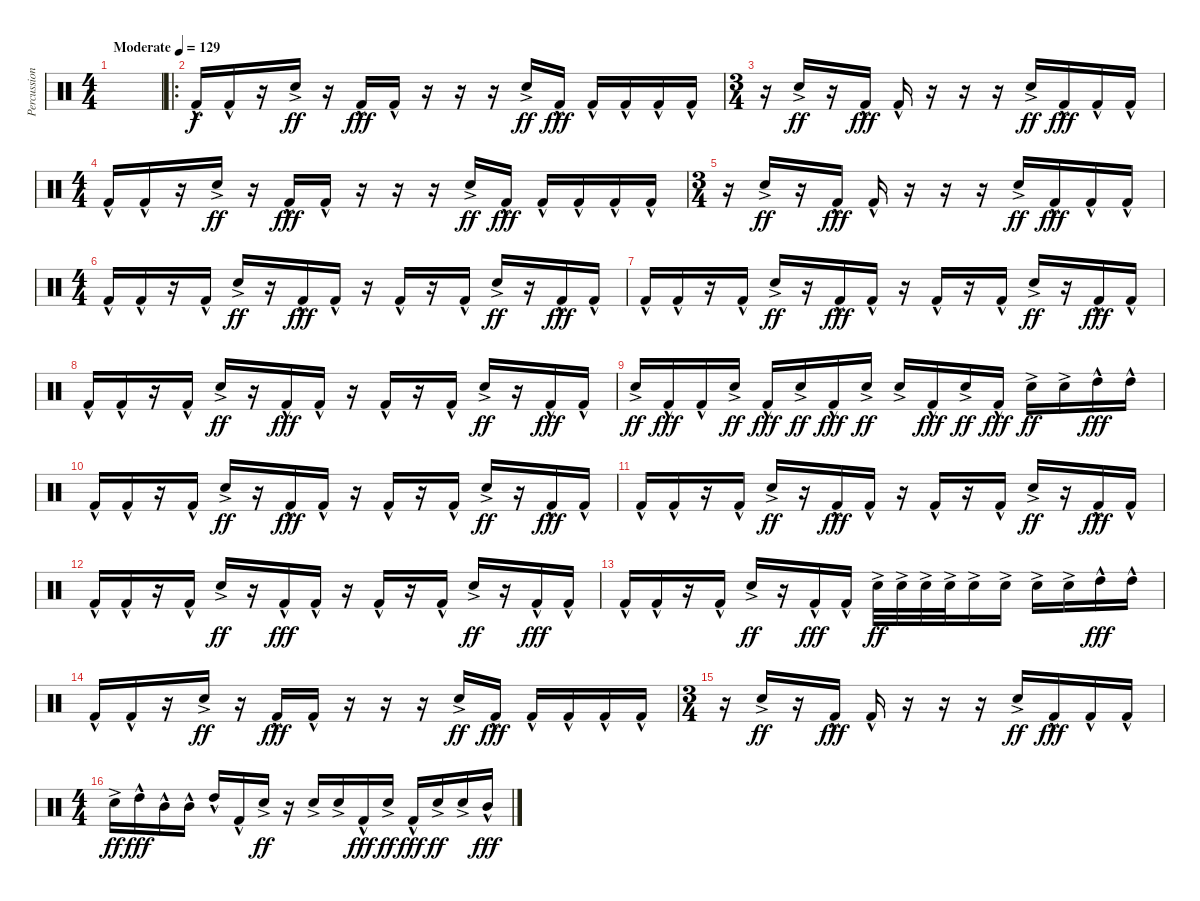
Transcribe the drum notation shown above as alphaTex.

\track ("Percussion" "Percussion") {instrument percussion bank 2}
\staff {score}
\articulation defaults
\ts (4 4)
\tempo (129 "Moderate")
\clef neutral
\ks c
|
\ro "Kick (hit) 2"{hac}.16 "Kick (hit) 2"{hac}.16
r.16 "Snare (hit) 2"{ac}.16{dy ff} r.16 "Kick (hit) 2"{hac}.16{dy fff} "Kick (hit) 2"{hac}.16 r.16 r.16 r.16 "Snare (hit) 2"{ac}.16{dy ff} "Kick (hit) 2"{hac}.16{dy fff} "Kick (hit) 2"{hac}.16 "Kick (hit) 2"{hac}.16 "Kick (hit) 2"{hac}.16 "Kick (hit) 2"{hac}.16 |
\ts (3 4)
r.16 "Snare (hit) 2"{ac}.16{dy ff} r.16 "Kick (hit) 2"{hac}.16{dy fff} "Kick (hit) 2"{hac}.16 r.16 r.16 r.16 "Snare (hit) 2"{ac}.16{dy ff} "Kick (hit) 2"{hac}.16{dy fff} "Kick (hit) 2"{hac}.16 "Kick (hit) 2"{hac}.16 |
\ts (4 4)
"Kick (hit) 2"{hac}.16 "Kick (hit) 2"{hac}.16 r.16 "Snare (hit) 2"{ac}.16{dy ff} r.16 "Kick (hit) 2"{hac}.16{dy fff} "Kick (hit) 2"{hac}.16 r.16 r.16 r.16 "Snare (hit) 2"{ac}.16{dy ff} "Kick (hit) 2"{hac}.16{dy fff} "Kick (hit) 2"{hac}.16 "Kick (hit) 2"{hac}.16 "Kick (hit) 2"{hac}.16 "Kick (hit) 2"{hac}.16 |
\ts (3 4)
r.16 "Snare (hit) 2"{ac}.16{dy ff} r.16 "Kick (hit) 2"{hac}.16{dy fff} "Kick (hit) 2"{hac}.16 r.16 r.16 r.16 "Snare (hit) 2"{ac}.16{dy ff} "Kick (hit) 2"{hac}.16{dy fff} "Kick (hit) 2"{hac}.16 "Kick (hit) 2"{hac}.16 |
\ts (4 4)
"Kick (hit) 2"{hac}.16 "Kick (hit) 2"{hac}.16 r.16 "Kick (hit) 2"{hac}.16 "Snare (hit) 2"{ac}.16{dy ff} r.16 "Kick (hit) 2"{hac}.16{dy fff} "Kick (hit) 2"{hac}.16 r.16 "Kick (hit) 2"{hac}.16 r.16 "Kick (hit) 2"{hac}.16 "Snare (hit) 2"{ac}.16{dy ff} r.16 "Kick (hit) 2"{hac}.16{dy fff} "Kick (hit) 2"{hac}.16 |
"Kick (hit) 2"{hac}.16 "Kick (hit) 2"{hac}.16 r.16 "Kick (hit) 2"{hac}.16 "Snare (hit) 2"{ac}.16{dy ff} r.16 "Kick (hit) 2"{hac}.16{dy fff} "Kick (hit) 2"{hac}.16 r.16 "Kick (hit) 2"{hac}.16 r.16 "Kick (hit) 2"{hac}.16 "Snare (hit) 2"{ac}.16{dy ff} r.16 "Kick (hit) 2"{hac}.16{dy fff} "Kick (hit) 2"{hac}.16 |
"Kick (hit) 2"{hac}.16 "Kick (hit) 2"{hac}.16 r.16 "Kick (hit) 2"{hac}.16 "Snare (hit) 2"{ac}.16{dy ff} r.16 "Kick (hit) 2"{hac}.16{dy fff} "Kick (hit) 2"{hac}.16 r.16 "Kick (hit) 2"{hac}.16 r.16 "Kick (hit) 2"{hac}.16 "Snare (hit) 2"{ac}.16{dy ff} r.16 "Kick (hit) 2"{hac}.16{dy fff} "Kick (hit) 2"{hac}.16 |
"Snare (hit) 2"{ac}.16{dy ff} "Kick (hit) 2"{hac}.16{dy fff} "Kick (hit) 2"{hac}.16 "Snare (hit) 2"{ac}.16{dy ff} "Kick (hit) 2"{hac}.16{dy fff} "Snare (hit) 2"{ac}.16{dy ff} "Kick (hit) 2"{hac}.16{dy fff} "Snare (hit) 2"{ac}.16{dy ff} "Snare (hit) 2"{ac}.16 "Kick (hit) 2"{hac}.16{dy fff} "Snare (hit) 2"{ac}.16{dy ff} "Kick (hit) 2"{hac}.16{dy fff} "Snare (hit) 2"{ac}.16{dy ff} "Snare (hit) 2"{ac}.16 "High Tom (hit)"{hac}.16{dy fff} "High Tom (hit)"{hac}.16 |
"Kick (hit) 2"{hac}.16 "Kick (hit) 2"{hac}.16 r.16 "Kick (hit) 2"{hac}.16 "Snare (hit) 2"{ac}.16{dy ff} r.16 "Kick (hit) 2"{hac}.16{dy fff} "Kick (hit) 2"{hac}.16 r.16 "Kick (hit) 2"{hac}.16 r.16 "Kick (hit) 2"{hac}.16 "Snare (hit) 2"{ac}.16{dy ff} r.16 "Kick (hit) 2"{hac}.16{dy fff} "Kick (hit) 2"{hac}.16 |
"Kick (hit) 2"{hac}.16 "Kick (hit) 2"{hac}.16 r.16 "Kick (hit) 2"{hac}.16 "Snare (hit) 2"{ac}.16{dy ff} r.16 "Kick (hit) 2"{hac}.16{dy fff} "Kick (hit) 2"{hac}.16 r.16 "Kick (hit) 2"{hac}.16 r.16 "Kick (hit) 2"{hac}.16 "Snare (hit) 2"{ac}.16{dy ff} r.16 "Kick (hit) 2"{hac}.16{dy fff} "Kick (hit) 2"{hac}.16 |
"Kick (hit) 2"{hac}.16 "Kick (hit) 2"{hac}.16 r.16 "Kick (hit) 2"{hac}.16 "Snare (hit) 2"{ac}.16{dy ff} r.16 "Kick (hit) 2"{hac}.16{dy fff} "Kick (hit) 2"{hac}.16 r.16 "Kick (hit) 2"{hac}.16 r.16 "Kick (hit) 2"{hac}.16 "Snare (hit) 2"{ac}.16{dy ff} r.16 "Kick (hit) 2"{hac}.16{dy fff} "Kick (hit) 2"{hac}.16 |
"Kick (hit) 2"{hac}.16 "Kick (hit) 2"{hac}.16 r.16 "Kick (hit) 2"{hac}.16 "Snare (hit) 2"{ac}.16{dy ff} r.16 "Kick (hit) 2"{hac}.16{dy fff} "Kick (hit) 2"{hac}.16 "Snare (hit) 2"{ac}.32{dy ff} "Snare (hit) 2"{ac}.32 "Snare (hit) 2"{ac}.32 "Snare (hit) 2"{ac}.32 "Snare (hit) 2"{ac}.16 "Snare (hit) 2"{ac}.16 "Snare (hit) 2"{ac}.16 "Snare (hit) 2"{ac}.16 "High Tom (hit)"{hac}.16{dy fff} "High Tom (hit)"{hac}.16 |
"Kick (hit) 2"{hac}.16 "Kick (hit) 2"{hac}.16 r.16 "Snare (hit) 2"{ac}.16{dy ff} r.16 "Kick (hit) 2"{hac}.16{dy fff} "Kick (hit) 2"{hac}.16 r.16 r.16 r.16 "Snare (hit) 2"{ac}.16{dy ff} "Kick (hit) 2"{hac}.16{dy fff} "Kick (hit) 2"{hac}.16 "Kick (hit) 2"{hac}.16 "Kick (hit) 2"{hac}.16 "Kick (hit) 2"{hac}.16 |
\ts (3 4)
r.16 "Snare (hit) 2"{ac}.16{dy ff} r.16 "Kick (hit) 2"{hac}.16{dy fff} "Kick (hit) 2"{hac}.16 r.16 r.16 r.16 "Snare (hit) 2"{ac}.16{dy ff} "Kick (hit) 2"{hac}.16{dy fff} "Kick (hit) 2"{hac}.16 "Kick (hit) 2"{hac}.16 |
\ts (4 4)
"Snare (hit) 2"{ac}.16{dy ff} "High Tom (hit)"{hac}.16{dy fff} "Mid Tom (hit)"{hac}.16 "Mid Tom (hit)"{hac}.16 "High Tom (hit)"{hac}.16 "Kick (hit) 2"{hac}.16 "Snare (hit) 2"{ac}.16{dy ff} r.16 "Snare (hit) 2"{ac}.16 "Snare (hit) 2"{ac}.16 "Kick (hit) 2"{hac}.16{dy fff} "Snare (hit) 2"{ac}.16{dy ff} "Kick (hit) 2"{hac}.16{dy fff} "Snare (hit) 2"{ac}.16{dy ff} "Snare (hit) 2"{ac}.16 "Mid Tom (hit)"{hac}.16{dy fff}
